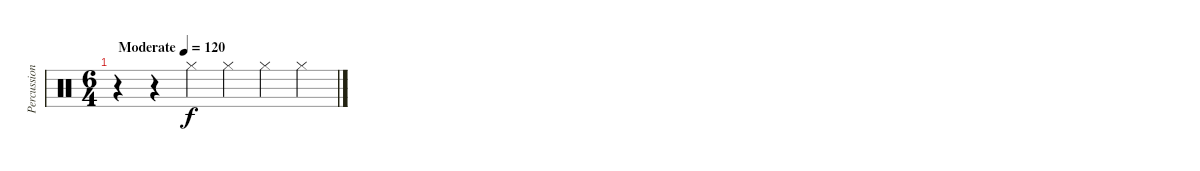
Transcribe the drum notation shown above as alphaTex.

\track ("Percussion" "Percussion") {instrument percussion}
\staff {score}
\articulation defaults
\ts (6 4)
\tempo (120 "Moderate")
\clef neutral
\ks c
r.4{dy f} r.4 "Hi-Hat (closed)".4 "Hi-Hat (closed)".4 "Hi-Hat (closed)".4 "Hi-Hat (closed)".4
